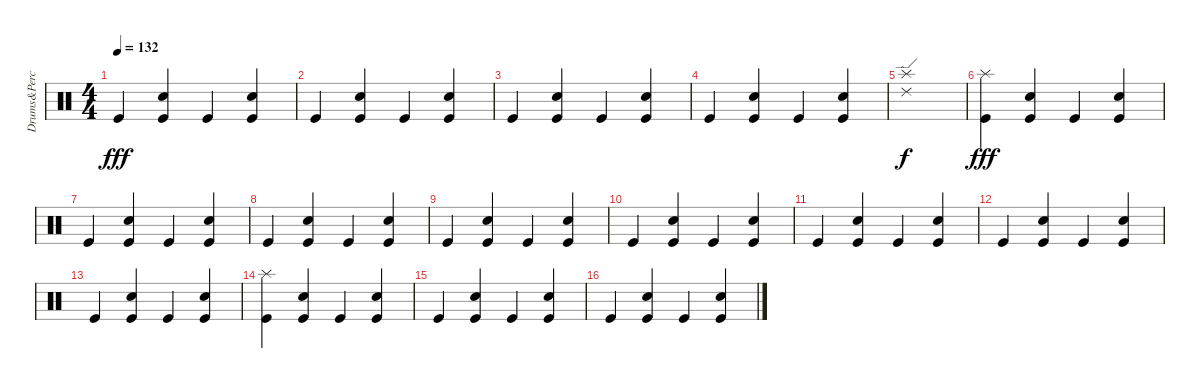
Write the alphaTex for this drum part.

\track ("Drums&Perc." "Drums&Perc") {instrument percussion}
\staff {score}
\articulation defaults
\ts (4 4)
\tempo 132
\clef neutral
\ks c "Kick (hit)".4{dy fff}
("Hand Clap (hit)" "Kick (hit)").4 "Kick (hit)".4 ("Hand Clap (hit)" "Kick (hit)").4 |
"Kick (hit)".4 ("Hand Clap (hit)" "Kick (hit)").4 "Kick (hit)".4 ("Hand Clap (hit)" "Kick (hit)").4 |
"Kick (hit)".4 ("Hand Clap (hit)" "Kick (hit)").4 "Kick (hit)".4 ("Hand Clap (hit)" "Kick (hit)").4 |
"Kick (hit)".4 ("Hand Clap (hit)" "Kick (hit)").4 "Kick (hit)".4 ("Hand Clap (hit)" "Kick (hit)").4 |
("Ride (edge) 2" "Splash (hit)").1{dy f} |
("Splash (hit)" "Kick (hit)").4{dy fff} ("Hand Clap (hit)" "Kick (hit)").4 "Kick (hit)".4 ("Hand Clap (hit)" "Kick (hit)").4 |
"Kick (hit)".4 ("Hand Clap (hit)" "Kick (hit)").4 "Kick (hit)".4 ("Hand Clap (hit)" "Kick (hit)").4 |
"Kick (hit)".4 ("Hand Clap (hit)" "Kick (hit)").4 "Kick (hit)".4 ("Hand Clap (hit)" "Kick (hit)").4 |
"Kick (hit)".4 ("Hand Clap (hit)" "Kick (hit)").4 "Kick (hit)".4 ("Hand Clap (hit)" "Kick (hit)").4 |
"Kick (hit)".4 ("Hand Clap (hit)" "Kick (hit)").4 "Kick (hit)".4 ("Hand Clap (hit)" "Kick (hit)").4 |
"Kick (hit)".4 ("Hand Clap (hit)" "Kick (hit)").4 "Kick (hit)".4 ("Hand Clap (hit)" "Kick (hit)").4 |
"Kick (hit)".4 ("Hand Clap (hit)" "Kick (hit)").4 "Kick (hit)".4 ("Hand Clap (hit)" "Kick (hit)").4 |
"Kick (hit)".4 ("Hand Clap (hit)" "Kick (hit)").4 "Kick (hit)".4 ("Hand Clap (hit)" "Kick (hit)").4 |
("Splash (hit)" "Kick (hit)").4 ("Hand Clap (hit)" "Kick (hit)").4 "Kick (hit)".4 ("Hand Clap (hit)" "Kick (hit)").4 |
"Kick (hit)".4 ("Hand Clap (hit)" "Kick (hit)").4 "Kick (hit)".4 ("Hand Clap (hit)" "Kick (hit)").4 |
"Kick (hit)".4 ("Hand Clap (hit)" "Kick (hit)").4{volume 14} "Kick (hit)".4{volume 14} ("Hand Clap (hit)" "Kick (hit)").4{volume 13}
